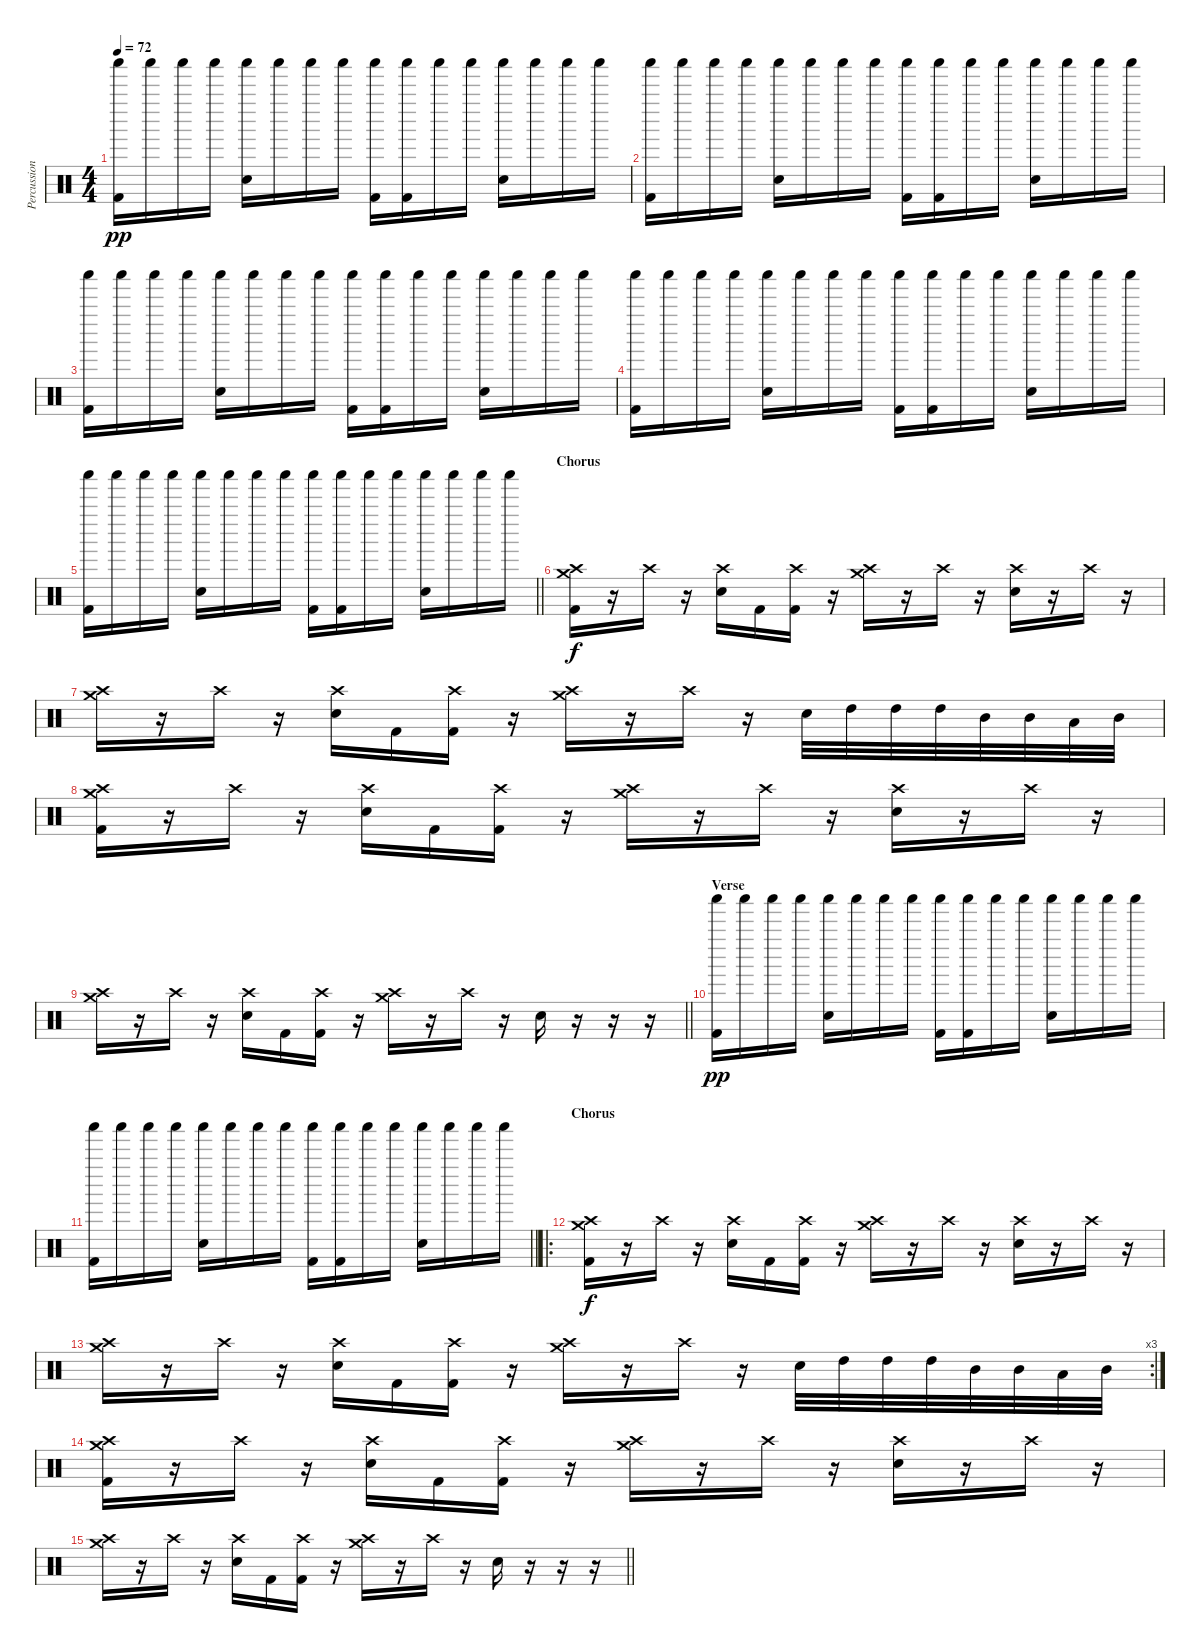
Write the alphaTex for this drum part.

\track ("Percussion" "Percussion") {instrument percussion}
\staff {score}
\articulation defaults
\ts (4 4)
\tempo 72
\clef neutral
\ks c
("Shaker (hit)" "Kick (hit) 2").16{dy pp} "Shaker (hit)".16 "Shaker (hit)".16 "Shaker (hit)".16 ("Electric Snare (hit)" "Shaker (hit)").16 "Shaker (hit)".16 "Shaker (hit)".16 "Shaker (hit)".16 ("Shaker (hit)" "Kick (hit) 2").16 ("Shaker (hit)" "Kick (hit) 2").16 "Shaker (hit)".16 "Shaker (hit)".16 ("Electric Snare (hit)" "Shaker (hit)").16 "Shaker (hit)".16 "Shaker (hit)".16 "Shaker (hit)".16 |
("Shaker (hit)" "Kick (hit) 2").16 "Shaker (hit)".16 "Shaker (hit)".16 "Shaker (hit)".16 ("Electric Snare (hit)" "Shaker (hit)").16 "Shaker (hit)".16 "Shaker (hit)".16 "Shaker (hit)".16 ("Shaker (hit)" "Kick (hit) 2").16 ("Shaker (hit)" "Kick (hit) 2").16 "Shaker (hit)".16 "Shaker (hit)".16 ("Electric Snare (hit)" "Shaker (hit)").16 "Shaker (hit)".16 "Shaker (hit)".16 "Shaker (hit)".16 |
("Shaker (hit)" "Kick (hit) 2").16 "Shaker (hit)".16 "Shaker (hit)".16 "Shaker (hit)".16 ("Electric Snare (hit)" "Shaker (hit)").16 "Shaker (hit)".16 "Shaker (hit)".16 "Shaker (hit)".16 ("Shaker (hit)" "Kick (hit) 2").16 ("Shaker (hit)" "Kick (hit) 2").16 "Shaker (hit)".16 "Shaker (hit)".16 ("Electric Snare (hit)" "Shaker (hit)").16 "Shaker (hit)".16 "Shaker (hit)".16 "Shaker (hit)".16 |
("Shaker (hit)" "Kick (hit) 2").16 "Shaker (hit)".16 "Shaker (hit)".16 "Shaker (hit)".16 ("Electric Snare (hit)" "Shaker (hit)").16 "Shaker (hit)".16 "Shaker (hit)".16 "Shaker (hit)".16 ("Shaker (hit)" "Kick (hit) 2").16 ("Shaker (hit)" "Kick (hit) 2").16 "Shaker (hit)".16 "Shaker (hit)".16 ("Electric Snare (hit)" "Shaker (hit)").16 "Shaker (hit)".16 "Shaker (hit)".16 "Shaker (hit)".16 |
\barLineRight lightlight
("Shaker (hit)" "Kick (hit) 2").16 "Shaker (hit)".16 "Shaker (hit)".16 "Shaker (hit)".16 ("Electric Snare (hit)" "Shaker (hit)").16 "Shaker (hit)".16 "Shaker (hit)".16 "Shaker (hit)".16 ("Shaker (hit)" "Kick (hit) 2").16 ("Shaker (hit)" "Kick (hit) 2").16 "Shaker (hit)".16 "Shaker (hit)".16 ("Electric Snare (hit)" "Shaker (hit)").16 "Shaker (hit)".16 "Shaker (hit)".16 "Shaker (hit)".16 |
\section ("" "Chorus")
("Crash high (hit)" "Crash medium (hit)" "Kick (hit) 2").16{dy f} r.16 "Crash high (hit)".16 r.16 ("Crash high (hit)" "Electric Snare (hit)").16 "Kick (hit) 2".16 ("Crash high (hit)" "Kick (hit) 2").16 r.16 ("Crash high (hit)" "Crash medium (hit)").16 r.16 "Crash high (hit)".16 r.16 ("Crash high (hit)" "Electric Snare (hit)").16 r.16 "Crash high (hit)".16 r.16 |
("Crash high (hit)" "Crash medium (hit)").16 r.16 "Crash high (hit)".16 r.16 ("Crash high (hit)" "Electric Snare (hit)").16 "Kick (hit) 2".16 ("Crash high (hit)" "Kick (hit) 2").16 r.16 ("Crash high (hit)" "Crash medium (hit)").16 r.16 "Crash high (hit)".16 r.16 "Electric Snare (hit)".32 "High Tom (hit)".32 "High Tom (hit)".32 "High Tom (hit)".32 "Mid Tom (hit)".32 "Mid Tom (hit)".32 "Low Tom (hit)".32 "Mid Tom (hit)".32 |
("Crash high (hit)" "Crash medium (hit)" "Kick (hit) 2").16 r.16 "Crash high (hit)".16 r.16 ("Crash high (hit)" "Electric Snare (hit)").16 "Kick (hit) 2".16 ("Crash high (hit)" "Kick (hit) 2").16 r.16 ("Crash high (hit)" "Crash medium (hit)").16 r.16 "Crash high (hit)".16 r.16 ("Crash high (hit)" "Electric Snare (hit)").16 r.16 "Crash high (hit)".16 r.16 |
\barLineRight lightlight
("Crash high (hit)" "Crash medium (hit)").16 r.16 "Crash high (hit)".16 r.16 ("Crash high (hit)" "Electric Snare (hit)").16 "Kick (hit) 2".16 ("Crash high (hit)" "Kick (hit) 2").16 r.16 ("Crash high (hit)" "Crash medium (hit)").16 r.16 "Crash high (hit)".16 r.16 "Electric Snare (hit)".16 r.16 r.16 r.16 |
\section ("" "Verse")
("Shaker (hit)" "Kick (hit) 2").16{dy pp} "Shaker (hit)".16 "Shaker (hit)".16 "Shaker (hit)".16 ("Electric Snare (hit)" "Shaker (hit)").16 "Shaker (hit)".16 "Shaker (hit)".16 "Shaker (hit)".16 ("Shaker (hit)" "Kick (hit) 2").16 ("Shaker (hit)" "Kick (hit) 2").16 "Shaker (hit)".16 "Shaker (hit)".16 ("Electric Snare (hit)" "Shaker (hit)").16 "Shaker (hit)".16 "Shaker (hit)".16 "Shaker (hit)".16 |
\barLineRight lightlight
("Shaker (hit)" "Kick (hit) 2").16 "Shaker (hit)".16 "Shaker (hit)".16 "Shaker (hit)".16 ("Electric Snare (hit)" "Shaker (hit)").16 "Shaker (hit)".16 "Shaker (hit)".16 "Shaker (hit)".16 ("Shaker (hit)" "Kick (hit) 2").16 ("Shaker (hit)" "Kick (hit) 2").16 "Shaker (hit)".16 "Shaker (hit)".16 ("Electric Snare (hit)" "Shaker (hit)").16 "Shaker (hit)".16 "Shaker (hit)".16 "Shaker (hit)".16 |
\ro
\section ("" "Chorus")
("Crash high (hit)" "Crash medium (hit)" "Kick (hit) 2").16{dy f} r.16 "Crash high (hit)".16 r.16 ("Crash high (hit)" "Electric Snare (hit)").16 "Kick (hit) 2".16 ("Crash high (hit)" "Kick (hit) 2").16 r.16 ("Crash high (hit)" "Crash medium (hit)").16 r.16 "Crash high (hit)".16 r.16 ("Crash high (hit)" "Electric Snare (hit)").16 r.16 "Crash high (hit)".16 r.16 |
\rc 3
("Crash high (hit)" "Crash medium (hit)").16 r.16 "Crash high (hit)".16 r.16 ("Crash high (hit)" "Electric Snare (hit)").16 "Kick (hit) 2".16 ("Crash high (hit)" "Kick (hit) 2").16 r.16 ("Crash high (hit)" "Crash medium (hit)").16 r.16 "Crash high (hit)".16 r.16 "Electric Snare (hit)".32 "High Tom (hit)".32 "High Tom (hit)".32 "High Tom (hit)".32 "Mid Tom (hit)".32 "Mid Tom (hit)".32 "Low Tom (hit)".32 "Mid Tom (hit)".32 |
("Crash high (hit)" "Crash medium (hit)" "Kick (hit) 2").16 r.16 "Crash high (hit)".16 r.16 ("Crash high (hit)" "Electric Snare (hit)").16 "Kick (hit) 2".16 ("Crash high (hit)" "Kick (hit) 2").16 r.16 ("Crash high (hit)" "Crash medium (hit)").16 r.16 "Crash high (hit)".16 r.16 ("Crash high (hit)" "Electric Snare (hit)").16 r.16 "Crash high (hit)".16 r.16 |
\barLineRight lightlight
("Crash high (hit)" "Crash medium (hit)").16 r.16 "Crash high (hit)".16 r.16 ("Crash high (hit)" "Electric Snare (hit)").16 "Kick (hit) 2".16 ("Crash high (hit)" "Kick (hit) 2").16 r.16 ("Crash high (hit)" "Crash medium (hit)").16 r.16 "Crash high (hit)".16 r.16 "Electric Snare (hit)".16 r.16 r.16 r.16
